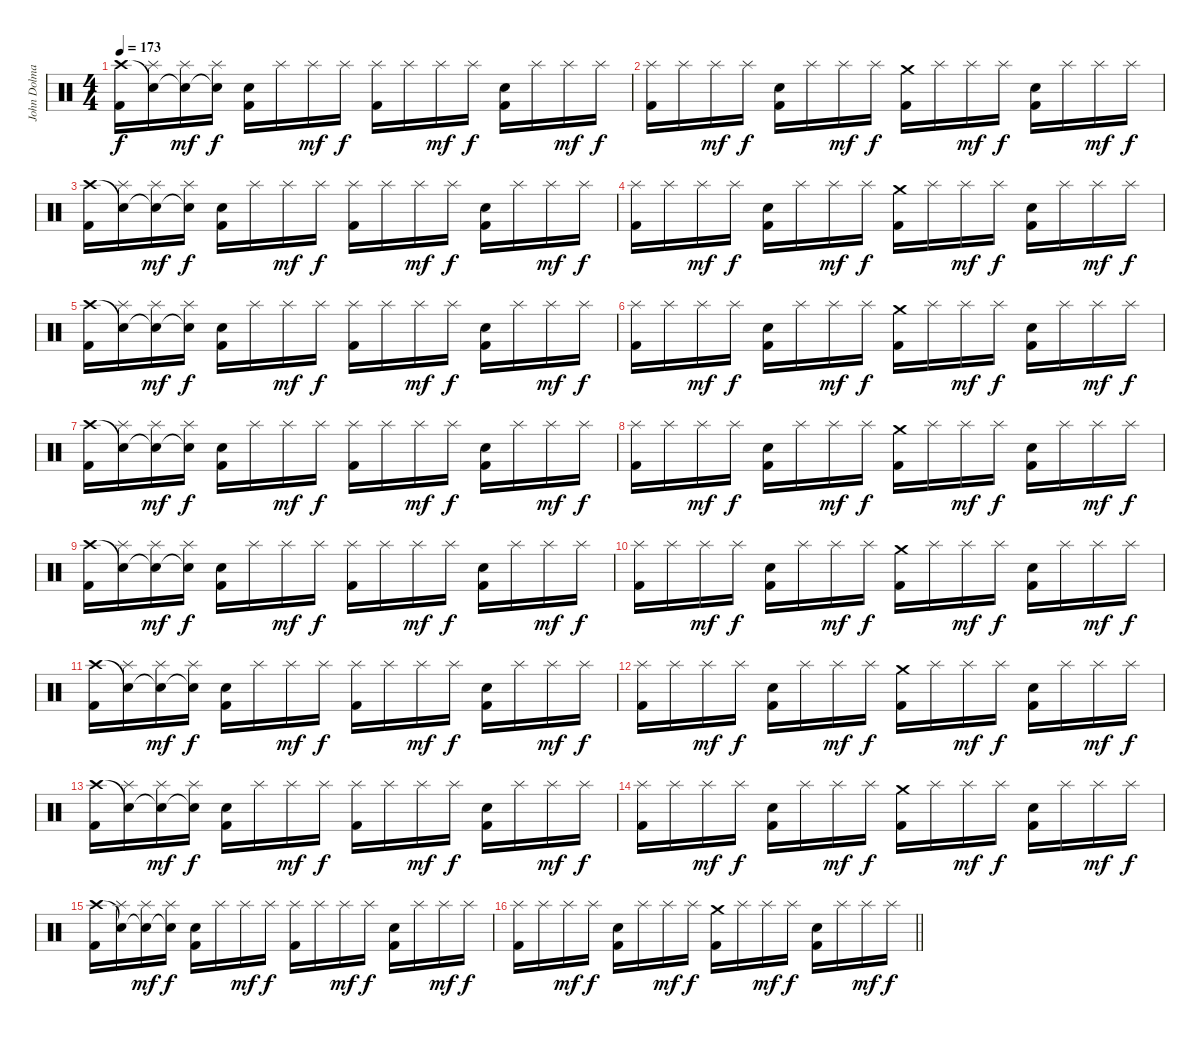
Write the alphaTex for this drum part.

\track ("John Dolmayan" "John Dolma") {instrument percussion}
\staff {score}
\articulation defaults
\ts (4 4)
\tempo 173
\clef neutral
\ks c
("Crash high (hit)" "Kick (hit) 2").16{dy f} ("Snare (hit)"{t} "Splash (hit)").16 ("Snare (hit)"{t} "Splash (hit)").16{dy mf} ("Snare (hit)"{t} "Splash (hit)").16{dy f} ("Electric Snare (hit)" "Kick (hit) 2").16 "Splash (hit)".16 "Splash (hit)".16{dy mf} "Splash (hit)".16{dy f} ("Splash (hit)" "Kick (hit) 2").16 "Splash (hit)".16 "Splash (hit)".16{dy mf} "Splash (hit)".16{dy f} ("Electric Snare (hit)" "Kick (hit) 2").16 "Splash (hit)".16 "Splash (hit)".16{dy mf} "Splash (hit)".16{dy f} |
("Splash (hit)" "Kick (hit) 2").16 "Splash (hit)".16 "Splash (hit)".16{dy mf} "Splash (hit)".16{dy f} ("Electric Snare (hit)" "Kick (hit) 2").16 "Splash (hit)".16 "Splash (hit)".16{dy mf} "Splash (hit)".16{dy f} ("Crash medium (hit)" "Kick (hit) 2").16 "Splash (hit)".16 "Splash (hit)".16{dy mf} "Splash (hit)".16{dy f} ("Electric Snare (hit)" "Kick (hit) 2").16 "Splash (hit)".16 "Splash (hit)".16{dy mf} "Splash (hit)".16{dy f} |
("Crash high (hit)" "Kick (hit) 2").16 ("Snare (hit)"{t} "Splash (hit)").16 ("Snare (hit)"{t} "Splash (hit)").16{dy mf} ("Snare (hit)"{t} "Splash (hit)").16{dy f} ("Electric Snare (hit)" "Kick (hit) 2").16 "Splash (hit)".16 "Splash (hit)".16{dy mf} "Splash (hit)".16{dy f} ("Splash (hit)" "Kick (hit) 2").16 "Splash (hit)".16 "Splash (hit)".16{dy mf} "Splash (hit)".16{dy f} ("Electric Snare (hit)" "Kick (hit) 2").16 "Splash (hit)".16 "Splash (hit)".16{dy mf} "Splash (hit)".16{dy f} |
("Splash (hit)" "Kick (hit) 2").16 "Splash (hit)".16 "Splash (hit)".16{dy mf} "Splash (hit)".16{dy f} ("Electric Snare (hit)" "Kick (hit) 2").16 "Splash (hit)".16 "Splash (hit)".16{dy mf} "Splash (hit)".16{dy f} ("Crash medium (hit)" "Kick (hit) 2").16 "Splash (hit)".16 "Splash (hit)".16{dy mf} "Splash (hit)".16{dy f} ("Electric Snare (hit)" "Kick (hit) 2").16 "Splash (hit)".16 "Splash (hit)".16{dy mf} "Splash (hit)".16{dy f} |
("Crash high (hit)" "Kick (hit) 2").16 ("Snare (hit)"{t} "Splash (hit)").16 ("Snare (hit)"{t} "Splash (hit)").16{dy mf} ("Snare (hit)"{t} "Splash (hit)").16{dy f} ("Electric Snare (hit)" "Kick (hit) 2").16 "Splash (hit)".16 "Splash (hit)".16{dy mf} "Splash (hit)".16{dy f} ("Splash (hit)" "Kick (hit) 2").16 "Splash (hit)".16 "Splash (hit)".16{dy mf} "Splash (hit)".16{dy f} ("Electric Snare (hit)" "Kick (hit) 2").16 "Splash (hit)".16 "Splash (hit)".16{dy mf} "Splash (hit)".16{dy f} |
("Splash (hit)" "Kick (hit) 2").16 "Splash (hit)".16 "Splash (hit)".16{dy mf} "Splash (hit)".16{dy f} ("Electric Snare (hit)" "Kick (hit) 2").16 "Splash (hit)".16 "Splash (hit)".16{dy mf} "Splash (hit)".16{dy f} ("Crash medium (hit)" "Kick (hit) 2").16 "Splash (hit)".16 "Splash (hit)".16{dy mf} "Splash (hit)".16{dy f} ("Electric Snare (hit)" "Kick (hit) 2").16 "Splash (hit)".16 "Splash (hit)".16{dy mf} "Splash (hit)".16{dy f} |
("Crash high (hit)" "Kick (hit) 2").16 ("Snare (hit)"{t} "Splash (hit)").16 ("Snare (hit)"{t} "Splash (hit)").16{dy mf} ("Snare (hit)"{t} "Splash (hit)").16{dy f} ("Electric Snare (hit)" "Kick (hit) 2").16 "Splash (hit)".16 "Splash (hit)".16{dy mf} "Splash (hit)".16{dy f} ("Splash (hit)" "Kick (hit) 2").16 "Splash (hit)".16 "Splash (hit)".16{dy mf} "Splash (hit)".16{dy f} ("Electric Snare (hit)" "Kick (hit) 2").16 "Splash (hit)".16 "Splash (hit)".16{dy mf} "Splash (hit)".16{dy f} |
("Splash (hit)" "Kick (hit) 2").16 "Splash (hit)".16 "Splash (hit)".16{dy mf} "Splash (hit)".16{dy f} ("Electric Snare (hit)" "Kick (hit) 2").16 "Splash (hit)".16 "Splash (hit)".16{dy mf} "Splash (hit)".16{dy f} ("Crash medium (hit)" "Kick (hit) 2").16 "Splash (hit)".16 "Splash (hit)".16{dy mf} "Splash (hit)".16{dy f} ("Electric Snare (hit)" "Kick (hit) 2").16 "Splash (hit)".16 "Splash (hit)".16{dy mf} "Splash (hit)".16{dy f} |
("Crash high (hit)" "Kick (hit) 2").16 ("Snare (hit)"{t} "Splash (hit)").16 ("Snare (hit)"{t} "Splash (hit)").16{dy mf} ("Snare (hit)"{t} "Splash (hit)").16{dy f} ("Electric Snare (hit)" "Kick (hit) 2").16 "Splash (hit)".16 "Splash (hit)".16{dy mf} "Splash (hit)".16{dy f} ("Splash (hit)" "Kick (hit) 2").16 "Splash (hit)".16 "Splash (hit)".16{dy mf} "Splash (hit)".16{dy f} ("Electric Snare (hit)" "Kick (hit) 2").16 "Splash (hit)".16 "Splash (hit)".16{dy mf} "Splash (hit)".16{dy f} |
("Splash (hit)" "Kick (hit) 2").16 "Splash (hit)".16 "Splash (hit)".16{dy mf} "Splash (hit)".16{dy f} ("Electric Snare (hit)" "Kick (hit) 2").16 "Splash (hit)".16 "Splash (hit)".16{dy mf} "Splash (hit)".16{dy f} ("Crash medium (hit)" "Kick (hit) 2").16 "Splash (hit)".16 "Splash (hit)".16{dy mf} "Splash (hit)".16{dy f} ("Electric Snare (hit)" "Kick (hit) 2").16 "Splash (hit)".16 "Splash (hit)".16{dy mf} "Splash (hit)".16{dy f} |
("Crash high (hit)" "Kick (hit) 2").16 ("Snare (hit)"{t} "Splash (hit)").16 ("Snare (hit)"{t} "Splash (hit)").16{dy mf} ("Snare (hit)"{t} "Splash (hit)").16{dy f} ("Electric Snare (hit)" "Kick (hit) 2").16 "Splash (hit)".16 "Splash (hit)".16{dy mf} "Splash (hit)".16{dy f} ("Splash (hit)" "Kick (hit) 2").16 "Splash (hit)".16 "Splash (hit)".16{dy mf} "Splash (hit)".16{dy f} ("Electric Snare (hit)" "Kick (hit) 2").16 "Splash (hit)".16 "Splash (hit)".16{dy mf} "Splash (hit)".16{dy f} |
("Splash (hit)" "Kick (hit) 2").16 "Splash (hit)".16 "Splash (hit)".16{dy mf} "Splash (hit)".16{dy f} ("Electric Snare (hit)" "Kick (hit) 2").16 "Splash (hit)".16 "Splash (hit)".16{dy mf} "Splash (hit)".16{dy f} ("Crash medium (hit)" "Kick (hit) 2").16 "Splash (hit)".16 "Splash (hit)".16{dy mf} "Splash (hit)".16{dy f} ("Electric Snare (hit)" "Kick (hit) 2").16 "Splash (hit)".16 "Splash (hit)".16{dy mf} "Splash (hit)".16{dy f} |
("Crash high (hit)" "Kick (hit) 2").16 ("Snare (hit)"{t} "Splash (hit)").16 ("Snare (hit)"{t} "Splash (hit)").16{dy mf} ("Snare (hit)"{t} "Splash (hit)").16{dy f} ("Electric Snare (hit)" "Kick (hit) 2").16 "Splash (hit)".16 "Splash (hit)".16{dy mf} "Splash (hit)".16{dy f} ("Splash (hit)" "Kick (hit) 2").16 "Splash (hit)".16 "Splash (hit)".16{dy mf} "Splash (hit)".16{dy f} ("Electric Snare (hit)" "Kick (hit) 2").16 "Splash (hit)".16 "Splash (hit)".16{dy mf} "Splash (hit)".16{dy f} |
("Splash (hit)" "Kick (hit) 2").16 "Splash (hit)".16 "Splash (hit)".16{dy mf} "Splash (hit)".16{dy f} ("Electric Snare (hit)" "Kick (hit) 2").16 "Splash (hit)".16 "Splash (hit)".16{dy mf} "Splash (hit)".16{dy f} ("Crash medium (hit)" "Kick (hit) 2").16 "Splash (hit)".16 "Splash (hit)".16{dy mf} "Splash (hit)".16{dy f} ("Electric Snare (hit)" "Kick (hit) 2").16 "Splash (hit)".16 "Splash (hit)".16{dy mf} "Splash (hit)".16{dy f} |
("Crash high (hit)" "Kick (hit) 2").16 ("Snare (hit)"{t} "Splash (hit)").16 ("Snare (hit)"{t} "Splash (hit)").16{dy mf} ("Snare (hit)"{t} "Splash (hit)").16{dy f} ("Electric Snare (hit)" "Kick (hit) 2").16 "Splash (hit)".16 "Splash (hit)".16{dy mf} "Splash (hit)".16{dy f} ("Splash (hit)" "Kick (hit) 2").16 "Splash (hit)".16 "Splash (hit)".16{dy mf} "Splash (hit)".16{dy f} ("Electric Snare (hit)" "Kick (hit) 2").16 "Splash (hit)".16 "Splash (hit)".16{dy mf} "Splash (hit)".16{dy f} |
\barLineRight lightlight
("Splash (hit)" "Kick (hit) 2").16 "Splash (hit)".16 "Splash (hit)".16{dy mf} "Splash (hit)".16{dy f} ("Electric Snare (hit)" "Kick (hit) 2").16 "Splash (hit)".16 "Splash (hit)".16{dy mf} "Splash (hit)".16{dy f} ("Crash medium (hit)" "Kick (hit) 2").16 "Splash (hit)".16 "Splash (hit)".16{dy mf} "Splash (hit)".16{dy f} ("Electric Snare (hit)" "Kick (hit) 2").16 "Splash (hit)".16 "Splash (hit)".16{dy mf} "Splash (hit)".16{dy f}
